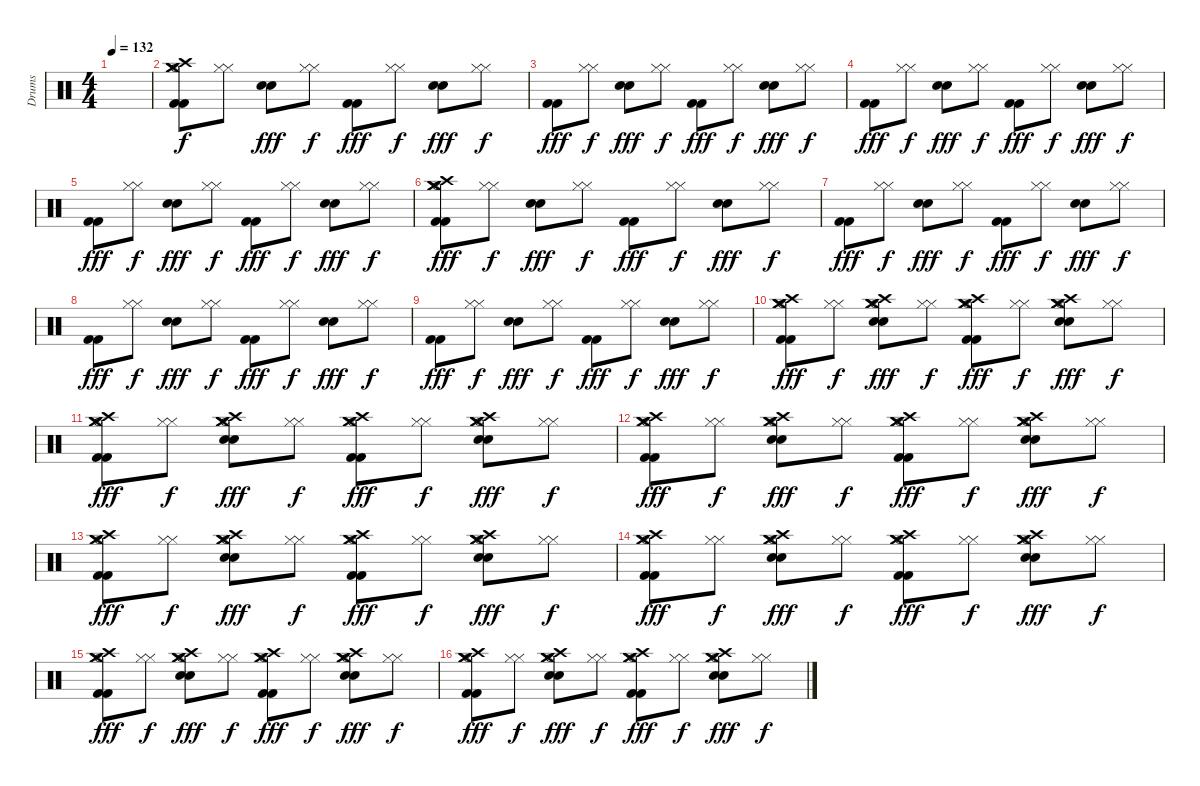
\track ("Drums" "Drums") {instrument percussion}
\staff {score}
\articulation defaults
\ts (4 4)
\tempo 132
\clef neutral
\ks c
|
("Kick (hit) 2" "Kick (hit) 2" "Crash high (hit)" "Hi-Hat (open)" "Crash medium (hit)" "Crash medium (hit)").8 ("Hi-Hat (closed)" "Hi-Hat (closed)").8{dy f} ("Snare (hit) 2" "Snare (hit) 2").8{dy fff} ("Hi-Hat (closed)" "Hi-Hat (closed)").8{dy f} ("Kick (hit) 2" "Kick (hit) 2").8{dy fff} ("Hi-Hat (closed)" "Hi-Hat (closed)").8{dy f} ("Snare (hit) 2" "Snare (hit) 2").8{dy fff} ("Hi-Hat (closed)" "Hi-Hat (closed)").8{dy f} |
("Kick (hit) 2" "Kick (hit) 2").8{dy fff} ("Hi-Hat (closed)" "Hi-Hat (closed)").8{dy f} ("Snare (hit) 2" "Snare (hit) 2").8{dy fff} ("Hi-Hat (closed)" "Hi-Hat (closed)").8{dy f} ("Kick (hit) 2" "Kick (hit) 2").8{dy fff} ("Hi-Hat (closed)" "Hi-Hat (closed)").8{dy f} ("Snare (hit) 2" "Snare (hit) 2").8{dy fff} ("Hi-Hat (closed)" "Hi-Hat (closed)").8{dy f} |
("Kick (hit) 2" "Kick (hit) 2").8{dy fff} ("Hi-Hat (closed)" "Hi-Hat (closed)").8{dy f} ("Snare (hit) 2" "Snare (hit) 2").8{dy fff} ("Hi-Hat (closed)" "Hi-Hat (closed)").8{dy f} ("Kick (hit) 2" "Kick (hit) 2").8{dy fff} ("Hi-Hat (closed)" "Hi-Hat (closed)").8{dy f} ("Snare (hit) 2" "Snare (hit) 2").8{dy fff} ("Hi-Hat (closed)" "Hi-Hat (closed)").8{dy f} |
("Kick (hit) 2" "Kick (hit) 2").8{dy fff} ("Hi-Hat (closed)" "Hi-Hat (closed)").8{dy f} ("Snare (hit) 2" "Snare (hit) 2").8{dy fff} ("Hi-Hat (closed)" "Hi-Hat (closed)").8{dy f} ("Kick (hit) 2" "Kick (hit) 2").8{dy fff} ("Hi-Hat (closed)" "Hi-Hat (closed)").8{dy f} ("Snare (hit) 2" "Snare (hit) 2").8{dy fff} ("Hi-Hat (closed)" "Hi-Hat (closed)").8{dy f} |
("Kick (hit) 2" "Kick (hit) 2" "Crash high (hit)" "Hi-Hat (open)" "Crash medium (hit)" "Crash medium (hit)").8{dy fff} ("Hi-Hat (closed)" "Hi-Hat (closed)").8{dy f} ("Snare (hit) 2" "Snare (hit) 2").8{dy fff} ("Hi-Hat (closed)" "Hi-Hat (closed)").8{dy f} ("Kick (hit) 2" "Kick (hit) 2").8{dy fff} ("Hi-Hat (closed)" "Hi-Hat (closed)").8{dy f} ("Snare (hit) 2" "Snare (hit) 2").8{dy fff} ("Hi-Hat (closed)" "Hi-Hat (closed)").8{dy f} |
("Kick (hit) 2" "Kick (hit) 2").8{dy fff} ("Hi-Hat (closed)" "Hi-Hat (closed)").8{dy f} ("Snare (hit) 2" "Snare (hit) 2").8{dy fff} ("Hi-Hat (closed)" "Hi-Hat (closed)").8{dy f} ("Kick (hit) 2" "Kick (hit) 2").8{dy fff} ("Hi-Hat (closed)" "Hi-Hat (closed)").8{dy f} ("Snare (hit) 2" "Snare (hit) 2").8{dy fff} ("Hi-Hat (closed)" "Hi-Hat (closed)").8{dy f} |
("Kick (hit) 2" "Kick (hit) 2").8{dy fff} ("Hi-Hat (closed)" "Hi-Hat (closed)").8{dy f} ("Snare (hit) 2" "Snare (hit) 2").8{dy fff} ("Hi-Hat (closed)" "Hi-Hat (closed)").8{dy f} ("Kick (hit) 2" "Kick (hit) 2").8{dy fff} ("Hi-Hat (closed)" "Hi-Hat (closed)").8{dy f} ("Snare (hit) 2" "Snare (hit) 2").8{dy fff} ("Hi-Hat (closed)" "Hi-Hat (closed)").8{dy f} |
("Kick (hit) 2" "Kick (hit) 2").8{dy fff} ("Hi-Hat (closed)" "Hi-Hat (closed)").8{dy f} ("Snare (hit) 2" "Snare (hit) 2").8{dy fff} ("Hi-Hat (closed)" "Hi-Hat (closed)").8{dy f} ("Kick (hit) 2" "Kick (hit) 2").8{dy fff} ("Hi-Hat (closed)" "Hi-Hat (closed)").8{dy f} ("Snare (hit) 2" "Snare (hit) 2").8{dy fff} ("Hi-Hat (closed)" "Hi-Hat (closed)").8{dy f} |
("Kick (hit) 2" "Kick (hit) 2" "Crash high (hit)" "Hi-Hat (open)" "Crash medium (hit)" "Crash medium (hit)").8{dy fff} ("Hi-Hat (closed)" "Hi-Hat (closed)").8{dy f} ("Snare (hit) 2" "Snare (hit) 2" "Crash high (hit)" "Hi-Hat (open)" "Crash medium (hit)" "Crash medium (hit)").8{dy fff} ("Hi-Hat (closed)" "Hi-Hat (closed)").8{dy f} ("Kick (hit) 2" "Kick (hit) 2" "Crash high (hit)" "Hi-Hat (open)" "Crash medium (hit)" "Crash medium (hit)").8{dy fff} ("Hi-Hat (closed)" "Hi-Hat (closed)").8{dy f} ("Snare (hit) 2" "Snare (hit) 2" "Crash high (hit)" "Hi-Hat (open)" "Crash medium (hit)" "Crash medium (hit)").8{dy fff} ("Hi-Hat (closed)" "Hi-Hat (closed)").8{dy f} |
("Kick (hit) 2" "Kick (hit) 2" "Crash high (hit)" "Hi-Hat (open)" "Crash medium (hit)" "Crash medium (hit)").8{dy fff} ("Hi-Hat (closed)" "Hi-Hat (closed)").8{dy f} ("Snare (hit) 2" "Snare (hit) 2" "Crash high (hit)" "Hi-Hat (open)" "Crash medium (hit)" "Crash medium (hit)").8{dy fff} ("Hi-Hat (closed)" "Hi-Hat (closed)").8{dy f} ("Kick (hit) 2" "Kick (hit) 2" "Crash high (hit)" "Hi-Hat (open)" "Crash medium (hit)" "Crash medium (hit)").8{dy fff} ("Hi-Hat (closed)" "Hi-Hat (closed)").8{dy f} ("Snare (hit) 2" "Snare (hit) 2" "Crash high (hit)" "Hi-Hat (open)" "Crash medium (hit)" "Crash medium (hit)").8{dy fff} ("Hi-Hat (closed)" "Hi-Hat (closed)").8{dy f} |
("Kick (hit) 2" "Kick (hit) 2" "Crash high (hit)" "Hi-Hat (open)" "Crash medium (hit)" "Crash medium (hit)").8{dy fff} ("Hi-Hat (closed)" "Hi-Hat (closed)").8{dy f} ("Snare (hit) 2" "Snare (hit) 2" "Crash high (hit)" "Hi-Hat (open)" "Crash medium (hit)" "Crash medium (hit)").8{dy fff} ("Hi-Hat (closed)" "Hi-Hat (closed)").8{dy f} ("Kick (hit) 2" "Kick (hit) 2" "Crash high (hit)" "Hi-Hat (open)" "Crash medium (hit)" "Crash medium (hit)").8{dy fff} ("Hi-Hat (closed)" "Hi-Hat (closed)").8{dy f} ("Snare (hit) 2" "Snare (hit) 2" "Crash high (hit)" "Hi-Hat (open)" "Crash medium (hit)" "Crash medium (hit)").8{dy fff} ("Hi-Hat (closed)" "Hi-Hat (closed)").8{dy f} |
("Kick (hit) 2" "Kick (hit) 2" "Crash high (hit)" "Hi-Hat (open)" "Crash medium (hit)" "Crash medium (hit)").8{dy fff} ("Hi-Hat (closed)" "Hi-Hat (closed)").8{dy f} ("Snare (hit) 2" "Snare (hit) 2" "Crash high (hit)" "Hi-Hat (open)" "Crash medium (hit)" "Crash medium (hit)").8{dy fff} ("Hi-Hat (closed)" "Hi-Hat (closed)").8{dy f} ("Kick (hit) 2" "Kick (hit) 2" "Crash high (hit)" "Hi-Hat (open)" "Crash medium (hit)" "Crash medium (hit)").8{dy fff} ("Hi-Hat (closed)" "Hi-Hat (closed)").8{dy f} ("Snare (hit) 2" "Snare (hit) 2" "Crash high (hit)" "Hi-Hat (open)" "Crash medium (hit)" "Crash medium (hit)").8{dy fff} ("Hi-Hat (closed)" "Hi-Hat (closed)").8{dy f} |
("Kick (hit) 2" "Kick (hit) 2" "Crash high (hit)" "Hi-Hat (open)" "Crash medium (hit)" "Crash medium (hit)").8{dy fff} ("Hi-Hat (closed)" "Hi-Hat (closed)").8{dy f} ("Snare (hit) 2" "Snare (hit) 2" "Crash high (hit)" "Hi-Hat (open)" "Crash medium (hit)" "Crash medium (hit)").8{dy fff} ("Hi-Hat (closed)" "Hi-Hat (closed)").8{dy f} ("Kick (hit) 2" "Kick (hit) 2" "Crash high (hit)" "Hi-Hat (open)" "Crash medium (hit)" "Crash medium (hit)").8{dy fff} ("Hi-Hat (closed)" "Hi-Hat (closed)").8{dy f} ("Snare (hit) 2" "Snare (hit) 2" "Crash high (hit)" "Hi-Hat (open)" "Crash medium (hit)" "Crash medium (hit)").8{dy fff} ("Hi-Hat (closed)" "Hi-Hat (closed)").8{dy f} |
("Kick (hit) 2" "Kick (hit) 2" "Crash high (hit)" "Hi-Hat (open)" "Crash medium (hit)" "Crash medium (hit)").8{dy fff} ("Hi-Hat (closed)" "Hi-Hat (closed)").8{dy f} ("Snare (hit) 2" "Snare (hit) 2" "Crash high (hit)" "Hi-Hat (open)" "Crash medium (hit)" "Crash medium (hit)").8{dy fff} ("Hi-Hat (closed)" "Hi-Hat (closed)").8{dy f} ("Kick (hit) 2" "Kick (hit) 2" "Crash high (hit)" "Hi-Hat (open)" "Crash medium (hit)" "Crash medium (hit)").8{dy fff} ("Hi-Hat (closed)" "Hi-Hat (closed)").8{dy f} ("Snare (hit) 2" "Snare (hit) 2" "Crash high (hit)" "Hi-Hat (open)" "Crash medium (hit)" "Crash medium (hit)").8{dy fff} ("Hi-Hat (closed)" "Hi-Hat (closed)").8{dy f} |
("Kick (hit) 2" "Kick (hit) 2" "Crash high (hit)" "Hi-Hat (open)" "Crash medium (hit)" "Crash medium (hit)").8{dy fff} ("Hi-Hat (closed)" "Hi-Hat (closed)").8{dy f} ("Snare (hit) 2" "Snare (hit) 2" "Crash high (hit)" "Hi-Hat (open)" "Crash medium (hit)" "Crash medium (hit)").8{dy fff} ("Hi-Hat (closed)" "Hi-Hat (closed)").8{dy f} ("Kick (hit) 2" "Kick (hit) 2" "Crash high (hit)" "Hi-Hat (open)" "Crash medium (hit)" "Crash medium (hit)").8{dy fff} ("Hi-Hat (closed)" "Hi-Hat (closed)").8{dy f} ("Snare (hit) 2" "Snare (hit) 2" "Crash high (hit)" "Hi-Hat (open)" "Crash medium (hit)" "Crash medium (hit)").8{dy fff} ("Hi-Hat (closed)" "Hi-Hat (closed)").8{dy f}
